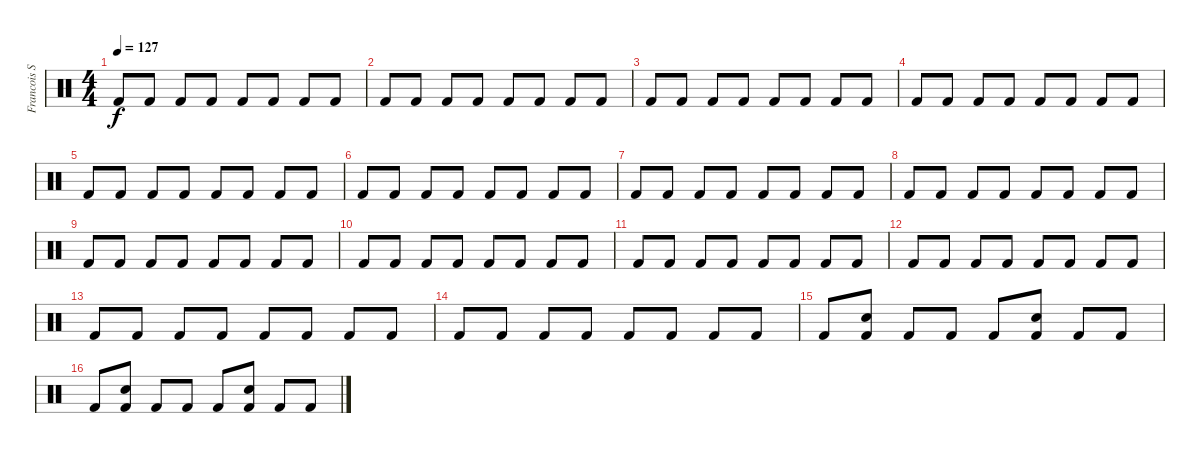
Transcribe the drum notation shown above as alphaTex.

\track ("Francois Soulier" "Francois S") {instrument percussion}
\staff {score}
\articulation defaults
\ts (4 4)
\tempo 127
\clef neutral
\ks c "Kick (hit) 2".8{dy f} "Kick (hit) 2".8 "Kick (hit) 2".8 "Kick (hit) 2".8 "Kick (hit) 2".8 "Kick (hit) 2".8 "Kick (hit) 2".8 "Kick (hit) 2".8
|
"Kick (hit) 2".8 "Kick (hit) 2".8 "Kick (hit) 2".8 "Kick (hit) 2".8 "Kick (hit) 2".8 "Kick (hit) 2".8 "Kick (hit) 2".8 "Kick (hit) 2".8 |
"Kick (hit) 2".8 "Kick (hit) 2".8 "Kick (hit) 2".8 "Kick (hit) 2".8 "Kick (hit) 2".8 "Kick (hit) 2".8 "Kick (hit) 2".8 "Kick (hit) 2".8 |
"Kick (hit) 2".8 "Kick (hit) 2".8 "Kick (hit) 2".8 "Kick (hit) 2".8 "Kick (hit) 2".8 "Kick (hit) 2".8 "Kick (hit) 2".8 "Kick (hit) 2".8 |
"Kick (hit) 2".8 "Kick (hit) 2".8 "Kick (hit) 2".8 "Kick (hit) 2".8 "Kick (hit) 2".8 "Kick (hit) 2".8 "Kick (hit) 2".8 "Kick (hit) 2".8 |
"Kick (hit) 2".8 "Kick (hit) 2".8 "Kick (hit) 2".8 "Kick (hit) 2".8 "Kick (hit) 2".8 "Kick (hit) 2".8 "Kick (hit) 2".8 "Kick (hit) 2".8 |
"Kick (hit) 2".8 "Kick (hit) 2".8 "Kick (hit) 2".8 "Kick (hit) 2".8 "Kick (hit) 2".8 "Kick (hit) 2".8 "Kick (hit) 2".8 "Kick (hit) 2".8 |
"Kick (hit) 2".8 "Kick (hit) 2".8 "Kick (hit) 2".8 "Kick (hit) 2".8 "Kick (hit) 2".8 "Kick (hit) 2".8 "Kick (hit) 2".8 "Kick (hit) 2".8 |
"Kick (hit) 2".8 "Kick (hit) 2".8 "Kick (hit) 2".8 "Kick (hit) 2".8 "Kick (hit) 2".8 "Kick (hit) 2".8 "Kick (hit) 2".8 "Kick (hit) 2".8 |
"Kick (hit) 2".8 "Kick (hit) 2".8 "Kick (hit) 2".8 "Kick (hit) 2".8 "Kick (hit) 2".8 "Kick (hit) 2".8 "Kick (hit) 2".8 "Kick (hit) 2".8 |
"Kick (hit) 2".8 "Kick (hit) 2".8 "Kick (hit) 2".8 "Kick (hit) 2".8 "Kick (hit) 2".8 "Kick (hit) 2".8 "Kick (hit) 2".8 "Kick (hit) 2".8 |
"Kick (hit) 2".8 "Kick (hit) 2".8 "Kick (hit) 2".8 "Kick (hit) 2".8 "Kick (hit) 2".8 "Kick (hit) 2".8 "Kick (hit) 2".8 "Kick (hit) 2".8 |
"Kick (hit) 2".8 "Kick (hit) 2".8 "Kick (hit) 2".8 "Kick (hit) 2".8 "Kick (hit) 2".8 "Kick (hit) 2".8 "Kick (hit) 2".8 "Kick (hit) 2".8 |
"Kick (hit) 2".8 "Kick (hit) 2".8 "Kick (hit) 2".8 "Kick (hit) 2".8 "Kick (hit) 2".8 "Kick (hit) 2".8 "Kick (hit) 2".8 "Kick (hit) 2".8 |
"Kick (hit) 2".8 ("Snare (hit) 2" "Kick (hit) 2").8 "Kick (hit) 2".8 "Kick (hit) 2".8 "Kick (hit) 2".8 ("Snare (hit) 2" "Kick (hit) 2").8 "Kick (hit) 2".8 "Kick (hit) 2".8 |
"Kick (hit) 2".8 ("Snare (hit) 2" "Kick (hit) 2").8 "Kick (hit) 2".8 "Kick (hit) 2".8 "Kick (hit) 2".8 ("Snare (hit) 2" "Kick (hit) 2").8 "Kick (hit) 2".8 "Kick (hit) 2".8
